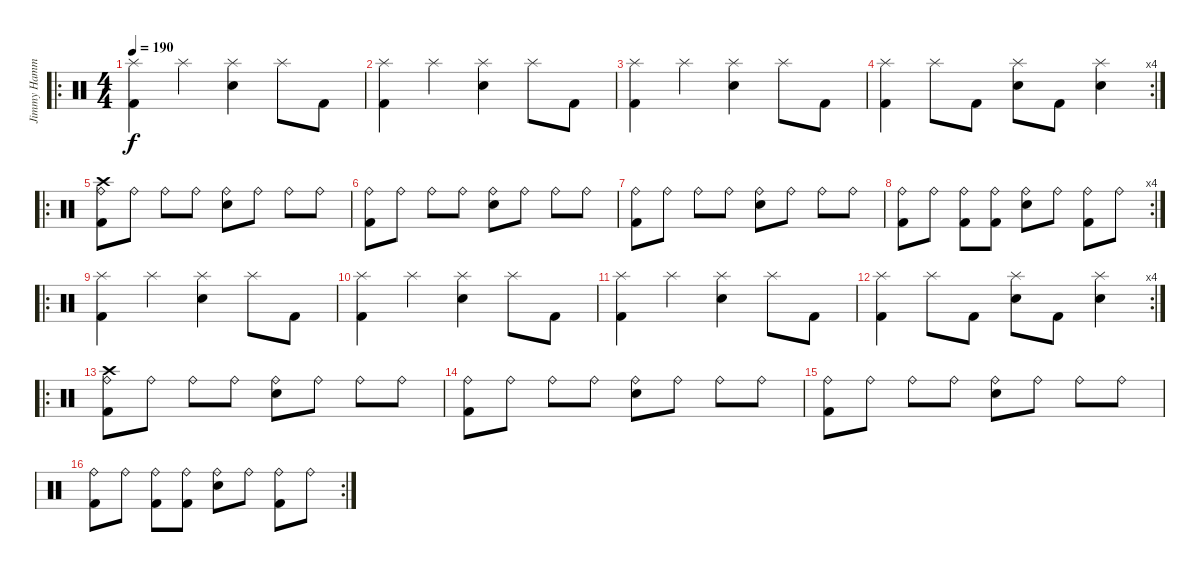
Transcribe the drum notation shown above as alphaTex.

\track ("Jimmy Hammer" "Jimmy Hamm") {instrument percussion}
\staff {score}
\articulation defaults
\ro
\ts (4 4)
\tempo 190
\clef neutral
\ks c
("Kick (hit) 2" "Splash (hit)").4{dy f} "Splash (hit)".4 ("Snare (hit) 2" "Splash (hit)").4 "Splash (hit)".8 "Kick (hit) 2".8 |
("Kick (hit) 2" "Splash (hit)").4 "Splash (hit)".4 ("Snare (hit) 2" "Splash (hit)").4 "Splash (hit)".8 "Kick (hit) 2".8 |
("Kick (hit) 2" "Splash (hit)").4 "Splash (hit)".4 ("Snare (hit) 2" "Splash (hit)").4 "Splash (hit)".8 "Kick (hit) 2".8 |
\rc 4
("Kick (hit) 2" "Splash (hit)").4 "Splash (hit)".8 "Kick (hit) 2".8 ("Snare (hit) 2" "Splash (hit)").8 "Kick (hit) 2".8 ("Snare (hit) 2" "Splash (hit)").4 |
\ro
("Kick (hit) 2" "Ride (bell)" "Crash high (hit)").8 "Ride (bell)".8 "Ride (bell)".8 "Ride (bell)".8 ("Snare (hit) 2" "Ride (bell)").8 "Ride (bell)".8 "Ride (bell)".8 "Ride (bell)".8 |
("Kick (hit) 2" "Ride (bell)").8 "Ride (bell)".8 "Ride (bell)".8 "Ride (bell)".8 ("Snare (hit) 2" "Ride (bell)").8 "Ride (bell)".8 "Ride (bell)".8 "Ride (bell)".8 |
("Kick (hit) 2" "Ride (bell)").8 "Ride (bell)".8 "Ride (bell)".8 "Ride (bell)".8 ("Snare (hit) 2" "Ride (bell)").8 "Ride (bell)".8 "Ride (bell)".8 "Ride (bell)".8 |
\rc 4
("Kick (hit) 2" "Ride (bell)").8 "Ride (bell)".8 ("Kick (hit) 2" "Ride (bell)").8 ("Kick (hit) 2" "Ride (bell)").8 ("Snare (hit) 2" "Ride (bell)").8 "Ride (bell)".8 ("Kick (hit) 2" "Ride (bell)").8 "Ride (bell)".8 |
\ro
("Kick (hit) 2" "Splash (hit)").4 "Splash (hit)".4 ("Snare (hit) 2" "Splash (hit)").4 "Splash (hit)".8 "Kick (hit) 2".8 |
("Kick (hit) 2" "Splash (hit)").4 "Splash (hit)".4 ("Snare (hit) 2" "Splash (hit)").4 "Splash (hit)".8 "Kick (hit) 2".8 |
("Kick (hit) 2" "Splash (hit)").4 "Splash (hit)".4 ("Snare (hit) 2" "Splash (hit)").4 "Splash (hit)".8 "Kick (hit) 2".8 |
\rc 4
("Kick (hit) 2" "Splash (hit)").4 "Splash (hit)".8 "Kick (hit) 2".8 ("Snare (hit) 2" "Splash (hit)").8 "Kick (hit) 2".8 ("Snare (hit) 2" "Splash (hit)").4 |
\ro
("Kick (hit) 2" "Ride (bell)" "Crash high (hit)").8 "Ride (bell)".8 "Ride (bell)".8 "Ride (bell)".8 ("Snare (hit) 2" "Ride (bell)").8 "Ride (bell)".8 "Ride (bell)".8 "Ride (bell)".8 |
("Kick (hit) 2" "Ride (bell)").8 "Ride (bell)".8 "Ride (bell)".8 "Ride (bell)".8 ("Snare (hit) 2" "Ride (bell)").8 "Ride (bell)".8 "Ride (bell)".8 "Ride (bell)".8 |
("Kick (hit) 2" "Ride (bell)").8 "Ride (bell)".8 "Ride (bell)".8 "Ride (bell)".8 ("Snare (hit) 2" "Ride (bell)").8 "Ride (bell)".8 "Ride (bell)".8 "Ride (bell)".8 |
\rc 2
("Kick (hit) 2" "Ride (bell)").8 "Ride (bell)".8 ("Kick (hit) 2" "Ride (bell)").8 ("Kick (hit) 2" "Ride (bell)").8 ("Snare (hit) 2" "Ride (bell)").8 "Ride (bell)".8 ("Kick (hit) 2" "Ride (bell)").8 "Ride (bell)".8
